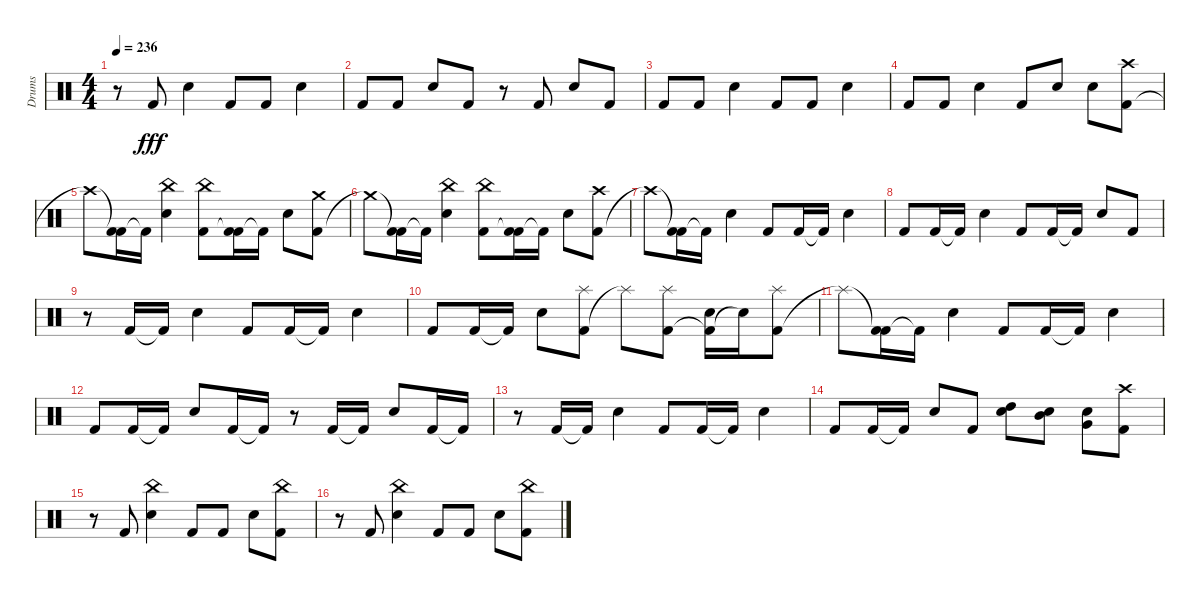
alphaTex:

\track ("Drums" "Drums") {instrument percussion}
\staff {score}
\articulation defaults
\ts (4 4)
\tempo 236
\clef neutral
\ks c
r.8{dy fff} "Kick (hit) 2".8 "Snare (hit) 2".4 "Kick (hit) 2".8 "Kick (hit) 2".8 "Snare (hit) 2".4 |
"Kick (hit) 2".8 "Kick (hit) 2".8 "Snare (hit) 2".8 "Kick (hit) 2".8 r.8 "Kick (hit) 2".8 "Snare (hit) 2".8 "Kick (hit) 2".8 |
"Kick (hit) 2".8 "Kick (hit) 2".8 "Snare (hit) 2".4 "Kick (hit) 2".8 "Kick (hit) 2".8 "Snare (hit) 2".4 |
"Kick (hit) 2".8 "Kick (hit) 2".8 "Snare (hit) 2".4 "Kick (hit) 2".8 "Snare (hit) 2".8 "Snare (hit) 2".8 ("Kick (hit) 2" "Crash high (hit)").8 |
"Crash high (hit)"{t}.8 ("Kick (hit) 2"{t} "Kick (hit) 2").16 "Kick (hit) 2"{t}.16 ("Snare (hit) 2" "China (hit)").4 ("Kick (hit) 2" "China (hit)").8 ("Kick (hit) 2"{t} "Kick (hit) 2").16 "Kick (hit) 2"{t}.16 "Snare (hit) 2".8 ("Kick (hit) 2" "Crash medium (hit)").8 |
"Crash medium (hit)"{t}.8 ("Kick (hit) 2"{t} "Kick (hit) 2").16 "Kick (hit) 2"{t}.16 ("Snare (hit) 2" "China (hit)").4 ("Kick (hit) 2" "China (hit)").8 ("Kick (hit) 2"{t} "Kick (hit) 2").16 "Kick (hit) 2"{t}.16 "Snare (hit) 2".8 ("Kick (hit) 2" "Crash high (hit)").8 |
"Crash high (hit)"{t}.8 ("Kick (hit) 2"{t} "Kick (hit) 2").16 "Kick (hit) 2"{t}.16 "Snare (hit) 2".4 "Kick (hit) 2".8 "Kick (hit) 2".16 "Kick (hit) 2"{t}.16 "Snare (hit) 2".4 |
"Kick (hit) 2".8 "Kick (hit) 2".16 "Kick (hit) 2"{t}.16 "Snare (hit) 2".4 "Kick (hit) 2".8 "Kick (hit) 2".16 "Kick (hit) 2"{t}.16 "Snare (hit) 2".8 "Kick (hit) 2".8 |
r.8 "Kick (hit) 2".16 "Kick (hit) 2"{t}.16 "Snare (hit) 2".4 "Kick (hit) 2".8 "Kick (hit) 2".16 "Kick (hit) 2"{t}.16 "Snare (hit) 2".4 |
"Kick (hit) 2".8 "Kick (hit) 2".16 "Kick (hit) 2"{t}.16 "Snare (hit) 2".8 ("Kick (hit) 2" "Splash (hit)").8 "Splash (hit)"{t}.8 ("Kick (hit) 2" "Splash (hit)").8 ("Kick (hit) 2"{t} "Snare (hit) 2").16 "Snare (hit) 2"{t}.16 ("Kick (hit) 2" "Splash (hit)").8 |
"Splash (hit)"{t}.8 ("Kick (hit) 2"{t} "Kick (hit) 2").16 "Kick (hit) 2"{t}.16 "Snare (hit) 2".4 "Kick (hit) 2".8 "Kick (hit) 2".16 "Kick (hit) 2"{t}.16 "Snare (hit) 2".4 |
"Kick (hit) 2".8 "Kick (hit) 2".16 "Kick (hit) 2"{t}.16 "Snare (hit) 2".8 "Kick (hit) 2".16 "Kick (hit) 2"{t}.16 r.8 "Kick (hit) 2".16 "Kick (hit) 2"{t}.16 "Snare (hit) 2".8 "Kick (hit) 2".16 "Kick (hit) 2"{t}.16 |
r.8 "Kick (hit) 2".16 "Kick (hit) 2"{t}.16 "Snare (hit) 2".4 "Kick (hit) 2".8 "Kick (hit) 2".16 "Kick (hit) 2"{t}.16 "Snare (hit) 2".4 |
"Kick (hit) 2".8 "Kick (hit) 2".16 "Kick (hit) 2"{t}.16 "Snare (hit) 2".8 "Kick (hit) 2".8 ("Snare (hit) 2" "High Tom (hit)").8 ("Snare (hit) 2" "Mid Tom (hit)").8 ("Snare (hit) 2" "Very Low Tom (hit)").8 ("Crash high (hit)" "Kick (hit) 2").8 |
r.8 "Kick (hit) 2".8 ("China (hit)" "Snare (hit) 2").4 "Kick (hit) 2".8 "Kick (hit) 2".8 "Snare (hit) 2".8 ("China (hit)" "Kick (hit) 2").8 |
r.8 "Kick (hit) 2".8 ("China (hit)" "Snare (hit) 2").4 "Kick (hit) 2".8 "Kick (hit) 2".8 "Snare (hit) 2".8 ("China (hit)" "Kick (hit) 2").8
